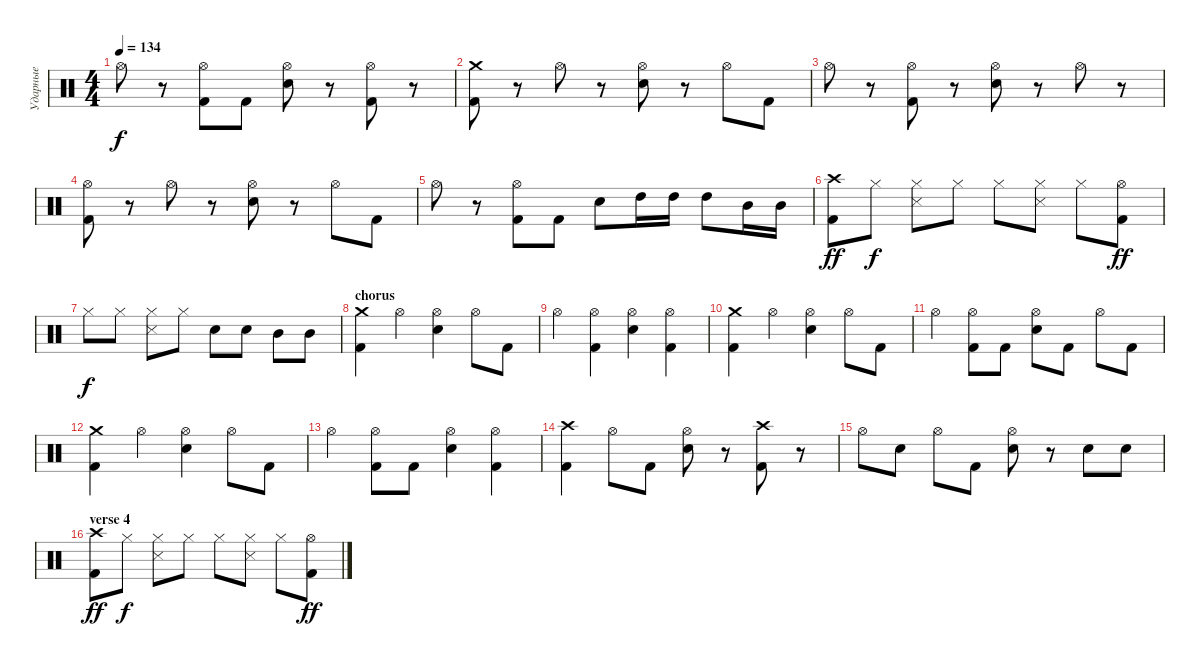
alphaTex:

\track ("Ударные" "Ударные") {instrument percussion}
\staff {score}
\articulation defaults
\ts (4 4)
\tempo 134
\clef neutral
\ks c "Hi-Hat (open)".8{dy f}
r.8 ("Hi-Hat (open)" "Kick (hit) 2").8 "Kick (hit) 2".8 ("Hi-Hat (open)" "Electric Snare (hit)").8 r.8 ("Hi-Hat (open)" "Kick (hit) 2").8 r.8 |
("Crash medium (hit)" "Kick (hit) 2").8 r.8 "Hi-Hat (open)".8 r.8 ("Hi-Hat (open)" "Electric Snare (hit)").8 r.8 "Hi-Hat (open)".8 "Kick (hit) 2".8 |
"Hi-Hat (open)".8 r.8 ("Hi-Hat (open)" "Kick (hit) 2").8 r.8 ("Hi-Hat (open)" "Electric Snare (hit)").8 r.8 "Hi-Hat (open)".8 r.8 |
("Hi-Hat (open)" "Kick (hit) 2").8 r.8 "Hi-Hat (open)".8 r.8 ("Hi-Hat (open)" "Electric Snare (hit)").8 r.8 "Hi-Hat (open)".8 "Kick (hit) 2".8 |
"Hi-Hat (open)".8 r.8 ("Hi-Hat (open)" "Kick (hit) 2").8 "Kick (hit) 2".8 "Electric Snare (hit)".8 "High Tom (hit)".16 "High Tom (hit)".16 "High Tom (hit)".8 "Mid Tom (hit)".16 "Mid Tom (hit)".16 |
("Crash high (hit)" "Kick (hit) 2").8{dy ff} "Hi-Hat (closed)".8{dy f} ("Hi-Hat (closed)" "Snare (side stick) 3").8 "Hi-Hat (closed)".8 "Hi-Hat (closed)".8 ("Hi-Hat (closed)" "Snare (side stick) 3").8 "Hi-Hat (closed)".8 ("Hi-Hat (open)" "Kick (hit) 2").8{dy ff} |
"Hi-Hat (closed)".8{dy f} "Hi-Hat (closed)".8 ("Hi-Hat (closed)" "Snare (side stick) 3").8 "Hi-Hat (closed)".8 "Electric Snare (hit)".8 "Electric Snare (hit)".8 "Mid Tom (hit)".8 "Mid Tom (hit)".8 |
\section ("" "chorus")
("Crash medium (hit)" "Kick (hit) 2").4 "Hi-Hat (open)".4 ("Hi-Hat (open)" "Electric Snare (hit)").4 "Hi-Hat (open)".8 "Kick (hit) 2".8 |
"Hi-Hat (open)".4 ("Hi-Hat (open)" "Kick (hit) 2").4 ("Hi-Hat (open)" "Electric Snare (hit)").4 ("Hi-Hat (open)" "Kick (hit) 2").4 |
("Crash medium (hit)" "Kick (hit) 2").4 "Hi-Hat (open)".4 ("Hi-Hat (open)" "Electric Snare (hit)").4 "Hi-Hat (open)".8 "Kick (hit) 2".8 |
"Hi-Hat (open)".4 ("Hi-Hat (open)" "Kick (hit) 2").8 "Kick (hit) 2".8 ("Hi-Hat (open)" "Electric Snare (hit)").8 "Kick (hit) 2".8 "Hi-Hat (open)".8 "Kick (hit) 2".8 |
("Crash medium (hit)" "Kick (hit) 2").4 "Hi-Hat (open)".4 ("Hi-Hat (open)" "Electric Snare (hit)").4 "Hi-Hat (open)".8 "Kick (hit) 2".8 |
"Hi-Hat (open)".4 ("Hi-Hat (open)" "Kick (hit) 2").8 "Kick (hit) 2".8 ("Hi-Hat (open)" "Electric Snare (hit)").4 ("Hi-Hat (open)" "Kick (hit) 2").4 |
("Crash high (hit)" "Kick (hit) 2").4 "Hi-Hat (open)".8 "Kick (hit) 2".8 ("Hi-Hat (open)" "Electric Snare (hit)").8 r.8 ("Crash high (hit)" "Kick (hit) 2").8 r.8 |
"Hi-Hat (open)".8 "Electric Snare (hit)".8 "Hi-Hat (open)".8 "Kick (hit) 2".8 ("Hi-Hat (open)" "Electric Snare (hit)").8 r.8 "Electric Snare (hit)".8 "Electric Snare (hit)".8 |
\section ("" "verse 4")
("Crash high (hit)" "Kick (hit) 2").8{dy ff} "Hi-Hat (closed)".8{dy f} ("Hi-Hat (closed)" "Snare (side stick) 3").8 "Hi-Hat (closed)".8 "Hi-Hat (closed)".8 ("Hi-Hat (closed)" "Snare (side stick) 3").8 "Hi-Hat (closed)".8 ("Hi-Hat (open)" "Kick (hit) 2").8{dy ff}
